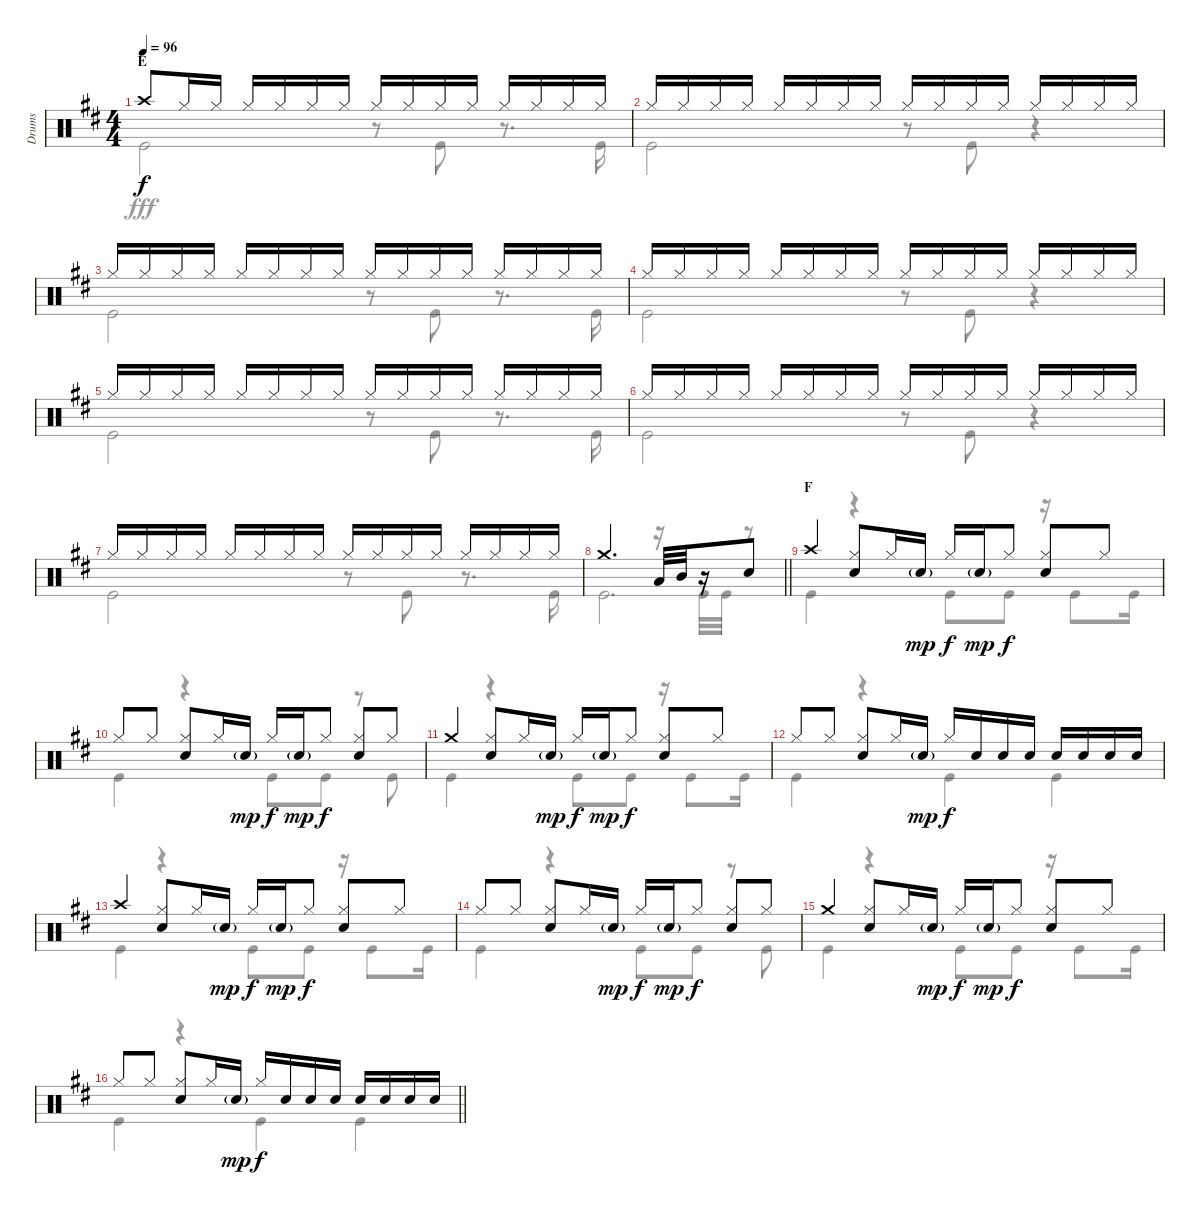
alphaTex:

\track ("Drums" "Drums") {instrument percussion}
\staff {score}
\articulation defaults
\voice
\ts (4 4)
\section ("" "E")
\tempo 96
\clef neutral
\ks d "Crash high (hit)".8{dy f} "Hi-Hat (closed)".16 "Hi-Hat (closed)".16 "Hi-Hat (closed)".16 "Hi-Hat (closed)".16 "Hi-Hat (closed)".16 "Hi-Hat (closed)".16 "Hi-Hat (closed)".16 "Hi-Hat (closed)".16 "Hi-Hat (closed)".16 "Hi-Hat (closed)".16 "Hi-Hat (closed)".16 "Hi-Hat (closed)".16 "Hi-Hat (closed)".16 "Hi-Hat (closed)".16
|
"Hi-Hat (closed)".16 "Hi-Hat (closed)".16 "Hi-Hat (closed)".16 "Hi-Hat (closed)".16 "Hi-Hat (closed)".16 "Hi-Hat (closed)".16 "Hi-Hat (closed)".16 "Hi-Hat (closed)".16 "Hi-Hat (closed)".16 "Hi-Hat (closed)".16 "Hi-Hat (closed)".16 "Hi-Hat (closed)".16 "Hi-Hat (closed)".16 "Hi-Hat (closed)".16 "Hi-Hat (closed)".16 "Hi-Hat (closed)".16 |
"Hi-Hat (closed)".16 "Hi-Hat (closed)".16 "Hi-Hat (closed)".16 "Hi-Hat (closed)".16 "Hi-Hat (closed)".16 "Hi-Hat (closed)".16 "Hi-Hat (closed)".16 "Hi-Hat (closed)".16 "Hi-Hat (closed)".16 "Hi-Hat (closed)".16 "Hi-Hat (closed)".16 "Hi-Hat (closed)".16 "Hi-Hat (closed)".16 "Hi-Hat (closed)".16 "Hi-Hat (closed)".16 "Hi-Hat (closed)".16 |
"Hi-Hat (closed)".16 "Hi-Hat (closed)".16 "Hi-Hat (closed)".16 "Hi-Hat (closed)".16 "Hi-Hat (closed)".16 "Hi-Hat (closed)".16 "Hi-Hat (closed)".16 "Hi-Hat (closed)".16 "Hi-Hat (closed)".16 "Hi-Hat (closed)".16 "Hi-Hat (closed)".16 "Hi-Hat (closed)".16 "Hi-Hat (closed)".16 "Hi-Hat (closed)".16 "Hi-Hat (closed)".16 "Hi-Hat (closed)".16 |
"Hi-Hat (closed)".16 "Hi-Hat (closed)".16 "Hi-Hat (closed)".16 "Hi-Hat (closed)".16 "Hi-Hat (closed)".16 "Hi-Hat (closed)".16 "Hi-Hat (closed)".16 "Hi-Hat (closed)".16 "Hi-Hat (closed)".16 "Hi-Hat (closed)".16 "Hi-Hat (closed)".16 "Hi-Hat (closed)".16 "Hi-Hat (closed)".16 "Hi-Hat (closed)".16 "Hi-Hat (closed)".16 "Hi-Hat (closed)".16 |
"Hi-Hat (closed)".16 "Hi-Hat (closed)".16 "Hi-Hat (closed)".16 "Hi-Hat (closed)".16 "Hi-Hat (closed)".16 "Hi-Hat (closed)".16 "Hi-Hat (closed)".16 "Hi-Hat (closed)".16 "Hi-Hat (closed)".16 "Hi-Hat (closed)".16 "Hi-Hat (closed)".16 "Hi-Hat (closed)".16 "Hi-Hat (closed)".16 "Hi-Hat (closed)".16 "Hi-Hat (closed)".16 "Hi-Hat (closed)".16 |
"Hi-Hat (closed)".16 "Hi-Hat (closed)".16 "Hi-Hat (closed)".16 "Hi-Hat (closed)".16 "Hi-Hat (closed)".16 "Hi-Hat (closed)".16 "Hi-Hat (closed)".16 "Hi-Hat (closed)".16 "Hi-Hat (closed)".16 "Hi-Hat (closed)".16 "Hi-Hat (closed)".16 "Hi-Hat (closed)".16 "Hi-Hat (closed)".16 "Hi-Hat (closed)".16 "Hi-Hat (closed)".16 "Hi-Hat (closed)".16 |
\barLineRight lightlight "Crash medium (hit)".2{d} "Low Tom (hit)".32 "Mid Tom (hit)".32
r.16 "Snare (hit) 2".8 |
\section ("" "F")
"Crash high (hit)".4 ("Hi-Hat (closed)" "Snare (hit) 2").8 "Hi-Hat (closed)".16 "Snare (hit) 2"{g}.16{dy mp} "Hi-Hat (closed)".16{dy f} "Snare (hit) 2"{g}.16{dy mp} "Hi-Hat (closed)".8{dy f} ("Hi-Hat (closed)" "Snare (hit) 2").8 "Hi-Hat (closed)".8 |
"Hi-Hat (closed)".8 "Hi-Hat (closed)".8 ("Hi-Hat (closed)" "Snare (hit) 2").8 "Hi-Hat (closed)".16 "Snare (hit) 2"{g}.16{dy mp} "Hi-Hat (closed)".16{dy f} "Snare (hit) 2"{g}.16{dy mp} "Hi-Hat (closed)".8{dy f} ("Hi-Hat (closed)" "Snare (hit) 2").8 "Hi-Hat (closed)".8 |
"Crash medium (hit)".4 ("Hi-Hat (closed)" "Snare (hit) 2").8 "Hi-Hat (closed)".16 "Snare (hit) 2"{g}.16{dy mp} "Hi-Hat (closed)".16{dy f} "Snare (hit) 2"{g}.16{dy mp} "Hi-Hat (closed)".8{dy f} ("Hi-Hat (closed)" "Snare (hit) 2").8 "Hi-Hat (closed)".8 |
"Hi-Hat (closed)".8 "Hi-Hat (closed)".8 ("Hi-Hat (closed)" "Snare (hit) 2").8 "Hi-Hat (closed)".16 "Snare (hit) 2"{g}.16{dy mp} "Hi-Hat (closed)".16{dy f} "Snare (hit) 2".16 "Snare (hit) 2".16 "Snare (hit) 2".16 "Snare (hit) 2".16 "Snare (hit) 2".16 "Snare (hit) 2".16 "Snare (hit) 2".16 |
"Crash high (hit)".4 ("Hi-Hat (closed)" "Snare (hit) 2").8 "Hi-Hat (closed)".16 "Snare (hit) 2"{g}.16{dy mp} "Hi-Hat (closed)".16{dy f} "Snare (hit) 2"{g}.16{dy mp} "Hi-Hat (closed)".8{dy f} ("Hi-Hat (closed)" "Snare (hit) 2").8 "Hi-Hat (closed)".8 |
"Hi-Hat (closed)".8 "Hi-Hat (closed)".8 ("Hi-Hat (closed)" "Snare (hit) 2").8 "Hi-Hat (closed)".16 "Snare (hit) 2"{g}.16{dy mp} "Hi-Hat (closed)".16{dy f} "Snare (hit) 2"{g}.16{dy mp} "Hi-Hat (closed)".8{dy f} ("Hi-Hat (closed)" "Snare (hit) 2").8 "Hi-Hat (closed)".8 |
"Crash medium (hit)".4 ("Hi-Hat (closed)" "Snare (hit) 2").8 "Hi-Hat (closed)".16 "Snare (hit) 2"{g}.16{dy mp} "Hi-Hat (closed)".16{dy f} "Snare (hit) 2"{g}.16{dy mp} "Hi-Hat (closed)".8{dy f} ("Hi-Hat (closed)" "Snare (hit) 2").8 "Hi-Hat (closed)".8 |
\barLineRight lightlight "Hi-Hat (closed)".8 "Hi-Hat (closed)".8
("Hi-Hat (closed)" "Snare (hit) 2").8 "Hi-Hat (closed)".16 "Snare (hit) 2"{g}.16{dy mp} "Hi-Hat (closed)".16{dy f} "Snare (hit) 2".16 "Snare (hit) 2".16 "Snare (hit) 2".16 "Snare (hit) 2".16 "Snare (hit) 2".16 "Snare (hit) 2".16 "Snare (hit) 2".16
\voice
\clef neutral
\ottava regular
\simile none
\ks d "Kick (hit)".2{dy fff}
r.8 "Kick (hit)".8 r.8{d} "Kick (hit)".16 |
"Kick (hit)".2 r.8 "Kick (hit)".8 r.4 |
"Kick (hit)".2 r.8 "Kick (hit)".8 r.8{d} "Kick (hit)".16 |
"Kick (hit)".2 r.8 "Kick (hit)".8 r.4 |
"Kick (hit)".2 r.8 "Kick (hit)".8 r.8{d} "Kick (hit)".16 |
"Kick (hit)".2 r.8 "Kick (hit)".8 r.4 |
"Kick (hit)".2 r.8 "Kick (hit)".8 r.8{d} "Kick (hit)".16 |
\barLineRight lightlight "Kick (hit)".2{d}
r.16 "Kick (hit)".32 "Kick (hit)".32 r.8 |
"Kick (hit)".4 r.4 "Kick (hit)".8 "Kick (hit)".8 r.16 "Kick (hit)".8 "Kick (hit)".16 |
"Kick (hit)".4 r.4 "Kick (hit)".8 "Kick (hit)".8 r.8 "Kick (hit)".8 |
"Kick (hit)".4 r.4 "Kick (hit)".8 "Kick (hit)".8 r.16 "Kick (hit)".8 "Kick (hit)".16 |
"Kick (hit)".4 r.4 "Kick (hit)".4 "Kick (hit)".4 |
"Kick (hit)".4 r.4 "Kick (hit)".8 "Kick (hit)".8 r.16 "Kick (hit)".8 "Kick (hit)".16 |
"Kick (hit)".4 r.4 "Kick (hit)".8 "Kick (hit)".8 r.8 "Kick (hit)".8 |
"Kick (hit)".4 r.4 "Kick (hit)".8 "Kick (hit)".8 r.16 "Kick (hit)".8 "Kick (hit)".16 |
\barLineRight lightlight "Kick (hit)".4
r.4 "Kick (hit)".4 "Kick (hit)".4
